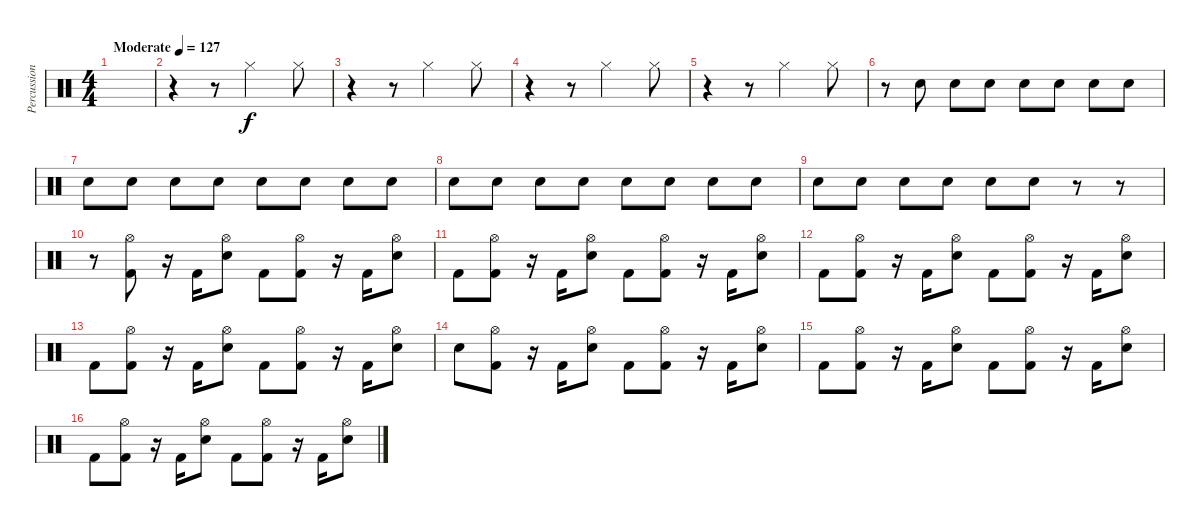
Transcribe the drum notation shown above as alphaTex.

\track ("Percussion" "Percussion") {instrument percussion}
\staff {score}
\articulation defaults
\ts (4 4)
\tempo (127 "Moderate")
\clef neutral
\ks c
|
r.4 r.8 "Hi-Hat (closed)".2 "Hi-Hat (closed)".8 |
r.4 r.8 "Hi-Hat (closed)".2 "Hi-Hat (closed)".8 |
r.4 r.8 "Hi-Hat (closed)".2 "Hi-Hat (closed)".8 |
r.4 r.8 "Hi-Hat (closed)".2 "Hi-Hat (closed)".8 |
r.8 "Electric Snare (hit)".8 "Electric Snare (hit)".8 "Electric Snare (hit)".8 "Electric Snare (hit)".8 "Electric Snare (hit)".8 "Electric Snare (hit)".8 "Electric Snare (hit)".8 |
"Electric Snare (hit)".8 "Electric Snare (hit)".8 "Electric Snare (hit)".8 "Electric Snare (hit)".8 "Electric Snare (hit)".8 "Electric Snare (hit)".8 "Electric Snare (hit)".8 "Electric Snare (hit)".8 |
"Electric Snare (hit)".8 "Electric Snare (hit)".8 "Electric Snare (hit)".8 "Electric Snare (hit)".8 "Electric Snare (hit)".8 "Electric Snare (hit)".8 "Electric Snare (hit)".8 "Electric Snare (hit)".8 |
"Electric Snare (hit)".8 "Electric Snare (hit)".8 "Electric Snare (hit)".8 "Electric Snare (hit)".8 "Electric Snare (hit)".8 "Electric Snare (hit)".8 r.8 r.8 |
r.8 ("Hi-Hat (open)" "Kick (hit) 2").8 r.16 "Kick (hit) 2".16 ("Hi-Hat (open)" "Electric Snare (hit)").8 "Kick (hit) 2".8 ("Hi-Hat (open)" "Kick (hit) 2").8 r.16 "Kick (hit) 2".16 ("Hi-Hat (open)" "Electric Snare (hit)").8 |
"Kick (hit) 2".8 ("Hi-Hat (open)" "Kick (hit) 2").8 r.16 "Kick (hit) 2".16 ("Hi-Hat (open)" "Electric Snare (hit)").8 "Kick (hit) 2".8 ("Hi-Hat (open)" "Kick (hit) 2").8 r.16 "Kick (hit) 2".16 ("Hi-Hat (open)" "Electric Snare (hit)").8 |
"Kick (hit) 2".8 ("Hi-Hat (open)" "Kick (hit) 2").8 r.16 "Kick (hit) 2".16 ("Hi-Hat (open)" "Electric Snare (hit)").8 "Kick (hit) 2".8 ("Hi-Hat (open)" "Kick (hit) 2").8 r.16 "Kick (hit) 2".16 ("Hi-Hat (open)" "Electric Snare (hit)").8 |
"Kick (hit) 2".8 ("Hi-Hat (open)" "Kick (hit) 2").8 r.16 "Kick (hit) 2".16 ("Hi-Hat (open)" "Electric Snare (hit)").8 "Kick (hit) 2".8 ("Hi-Hat (open)" "Kick (hit) 2").8 r.16 "Kick (hit) 2".16 ("Hi-Hat (open)" "Electric Snare (hit)").8 |
"Electric Snare (hit)".8 ("Hi-Hat (open)" "Kick (hit) 2").8 r.16 "Kick (hit) 2".16 ("Hi-Hat (open)" "Electric Snare (hit)").8 "Kick (hit) 2".8 ("Hi-Hat (open)" "Kick (hit) 2").8 r.16 "Kick (hit) 2".16 ("Hi-Hat (open)" "Electric Snare (hit)").8 |
"Kick (hit) 2".8 ("Hi-Hat (open)" "Kick (hit) 2").8 r.16 "Kick (hit) 2".16 ("Hi-Hat (open)" "Electric Snare (hit)").8 "Kick (hit) 2".8 ("Hi-Hat (open)" "Kick (hit) 2").8 r.16 "Kick (hit) 2".16 ("Hi-Hat (open)" "Electric Snare (hit)").8 |
"Kick (hit) 2".8 ("Hi-Hat (open)" "Kick (hit) 2").8 r.16 "Kick (hit) 2".16 ("Hi-Hat (open)" "Electric Snare (hit)").8 "Kick (hit) 2".8 ("Hi-Hat (open)" "Kick (hit) 2").8 r.16 "Kick (hit) 2".16 ("Hi-Hat (open)" "Electric Snare (hit)").8
